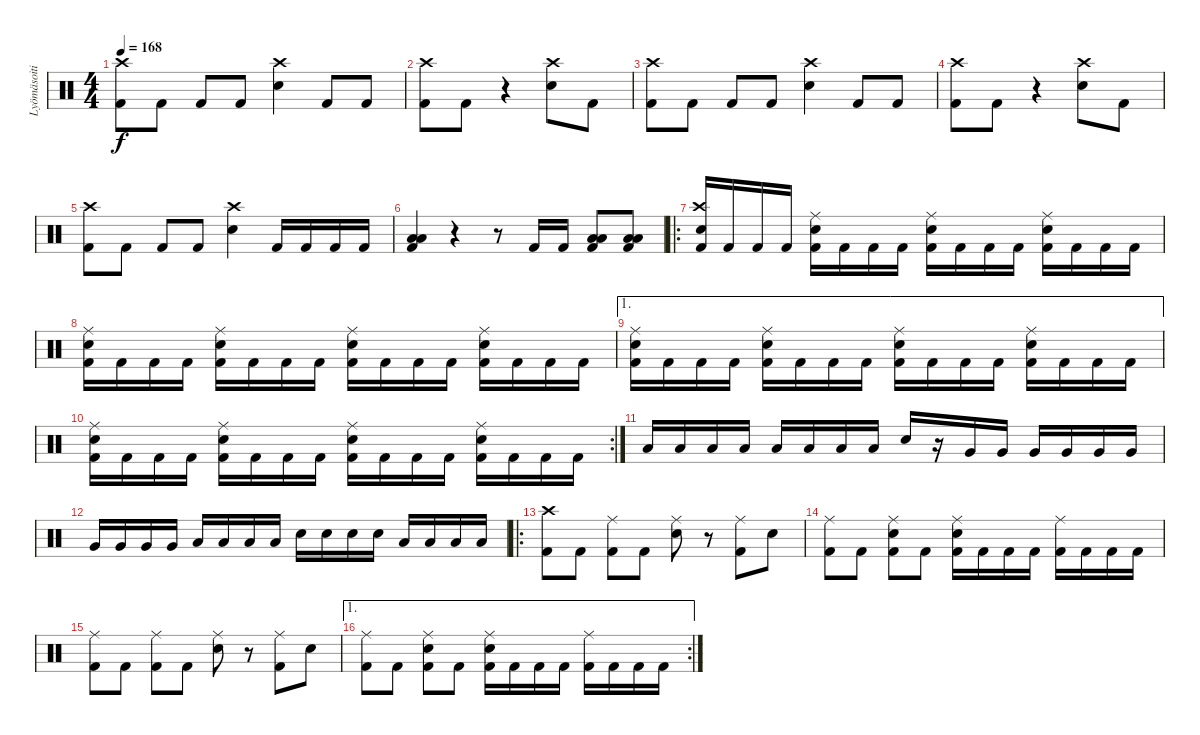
\track ("Lyömäsoitin" "Lyömäsoiti") {instrument percussion}
\staff {score}
\articulation defaults
\ts (4 4)
\tempo 168
\clef neutral
\ks c
("Kick (hit) 2" "Crash high (hit)").8{dy f} "Kick (hit) 2".8 "Kick (hit) 2".8 "Kick (hit) 2".8 ("Electric Snare (hit)" "Crash high (hit)").4 "Kick (hit) 2".8 "Kick (hit) 2".8 |
("Kick (hit) 2" "Crash high (hit)").8 "Kick (hit) 2".8 r.4 ("Electric Snare (hit)" "Crash high (hit)").8 "Kick (hit) 2".8 |
("Kick (hit) 2" "Crash high (hit)").8 "Kick (hit) 2".8 "Kick (hit) 2".8 "Kick (hit) 2".8 ("Electric Snare (hit)" "Crash high (hit)").4 "Kick (hit) 2".8 "Kick (hit) 2".8 |
("Kick (hit) 2" "Crash high (hit)").8 "Kick (hit) 2".8 r.4 ("Electric Snare (hit)" "Crash high (hit)").8 "Kick (hit) 2".8 |
("Kick (hit) 2" "Crash high (hit)").8 "Kick (hit) 2".8 "Kick (hit) 2".8 "Kick (hit) 2".8 ("Electric Snare (hit)" "Crash high (hit)").4 "Kick (hit) 2".16 "Kick (hit) 2".16 "Kick (hit) 2".16 "Kick (hit) 2".16 |
("Kick (hit) 2" "Low Floor Tom (hit)" "Low Tom (hit)").4 r.4 r.8 "Kick (hit) 2".16 "Kick (hit) 2".16 ("Kick (hit) 2" "Low Floor Tom (hit)" "Low Tom (hit)").8 ("Kick (hit) 2" "Low Floor Tom (hit)" "Low Tom (hit)").8 |
\ro
("Kick (hit) 2" "Electric Snare (hit)" "Crash high (hit)").16 "Kick (hit) 2".16 "Kick (hit) 2".16 "Kick (hit) 2".16 ("Kick (hit) 2" "Electric Snare (hit)" "Ride (middle)").16 "Kick (hit) 2".16 "Kick (hit) 2".16 "Kick (hit) 2".16 ("Kick (hit) 2" "Electric Snare (hit)" "Ride (middle)").16 "Kick (hit) 2".16 "Kick (hit) 2".16 "Kick (hit) 2".16 ("Kick (hit) 2" "Electric Snare (hit)" "Ride (middle)").16 "Kick (hit) 2".16 "Kick (hit) 2".16 "Kick (hit) 2".16 |
("Kick (hit) 2" "Electric Snare (hit)" "Ride (middle)").16 "Kick (hit) 2".16 "Kick (hit) 2".16 "Kick (hit) 2".16 ("Kick (hit) 2" "Electric Snare (hit)" "Ride (middle)").16 "Kick (hit) 2".16 "Kick (hit) 2".16 "Kick (hit) 2".16 ("Kick (hit) 2" "Electric Snare (hit)" "Ride (middle)").16 "Kick (hit) 2".16 "Kick (hit) 2".16 "Kick (hit) 2".16 ("Kick (hit) 2" "Electric Snare (hit)" "Ride (middle)").16 "Kick (hit) 2".16 "Kick (hit) 2".16 "Kick (hit) 2".16 |
\ae 1
("Kick (hit) 2" "Electric Snare (hit)" "Ride (middle)").16 "Kick (hit) 2".16 "Kick (hit) 2".16 "Kick (hit) 2".16 ("Kick (hit) 2" "Electric Snare (hit)" "Ride (middle)").16 "Kick (hit) 2".16 "Kick (hit) 2".16 "Kick (hit) 2".16 ("Kick (hit) 2" "Electric Snare (hit)" "Ride (middle)").16 "Kick (hit) 2".16 "Kick (hit) 2".16 "Kick (hit) 2".16 ("Kick (hit) 2" "Electric Snare (hit)" "Ride (middle)").16 "Kick (hit) 2".16 "Kick (hit) 2".16 "Kick (hit) 2".16 |
\rc 2
("Kick (hit) 2" "Electric Snare (hit)" "Ride (middle)").16 "Kick (hit) 2".16 "Kick (hit) 2".16 "Kick (hit) 2".16 ("Kick (hit) 2" "Electric Snare (hit)" "Ride (middle)").16 "Kick (hit) 2".16 "Kick (hit) 2".16 "Kick (hit) 2".16 ("Kick (hit) 2" "Electric Snare (hit)" "Ride (middle)").16 "Kick (hit) 2".16 "Kick (hit) 2".16 "Kick (hit) 2".16 ("Kick (hit) 2" "Electric Snare (hit)" "Ride (middle)").16 "Kick (hit) 2".16 "Kick (hit) 2".16 "Kick (hit) 2".16 |
"Low Tom (hit)".16 "Low Tom (hit)".16 "Low Tom (hit)".16 "Low Tom (hit)".16 "Low Tom (hit)".16 "Low Tom (hit)".16 "Low Tom (hit)".16 "Low Tom (hit)".16 "Electric Snare (hit)".16 r.16 "Very Low Tom (hit)".16 "Very Low Tom (hit)".16 "Very Low Tom (hit)".16 "Very Low Tom (hit)".16 "Very Low Tom (hit)".16 "Very Low Tom (hit)".16 |
"Very Low Tom (hit)".16 "Very Low Tom (hit)".16 "Very Low Tom (hit)".16 "Very Low Tom (hit)".16 "Low Floor Tom (hit)".16 "Low Floor Tom (hit)".16 "Low Floor Tom (hit)".16 "Low Floor Tom (hit)".16 "Electric Snare (hit)".16 "Electric Snare (hit)".16 "Electric Snare (hit)".16 "Electric Snare (hit)".16 "Low Floor Tom (hit)".16 "Low Floor Tom (hit)".16 "Low Floor Tom (hit)".16 "Low Floor Tom (hit)".16 |
\ro
("Kick (hit) 2" "Crash high (hit)").8 "Kick (hit) 2".8 ("Kick (hit) 2" "Ride (middle)").8 "Kick (hit) 2".8 ("Electric Snare (hit)" "Ride (middle)").8 r.8 ("Kick (hit) 2" "Ride (middle)").8 "Electric Snare (hit)".8 |
("Kick (hit) 2" "Ride (middle)").8 "Kick (hit) 2".8 ("Kick (hit) 2" "Electric Snare (hit)" "Ride (middle)").8 "Kick (hit) 2".8 ("Kick (hit) 2" "Electric Snare (hit)" "Ride (middle)").16 "Kick (hit) 2".16 "Kick (hit) 2".16 "Kick (hit) 2".16 ("Kick (hit) 2" "Ride (middle)").16 "Kick (hit) 2".16 "Kick (hit) 2".16 "Kick (hit) 2".16 |
("Kick (hit) 2" "Ride (middle)").8 "Kick (hit) 2".8 ("Kick (hit) 2" "Ride (middle)").8 "Kick (hit) 2".8 ("Electric Snare (hit)" "Ride (middle)").8 r.8 ("Kick (hit) 2" "Ride (middle)").8 "Electric Snare (hit)".8 |
\ae 1
\rc 2
("Kick (hit) 2" "Ride (middle)").8 "Kick (hit) 2".8 ("Kick (hit) 2" "Electric Snare (hit)" "Ride (middle)").8 "Kick (hit) 2".8 ("Kick (hit) 2" "Electric Snare (hit)" "Ride (middle)").16 "Kick (hit) 2".16 "Kick (hit) 2".16 "Kick (hit) 2".16 ("Kick (hit) 2" "Ride (middle)").16 "Kick (hit) 2".16 "Kick (hit) 2".16 "Kick (hit) 2".16
